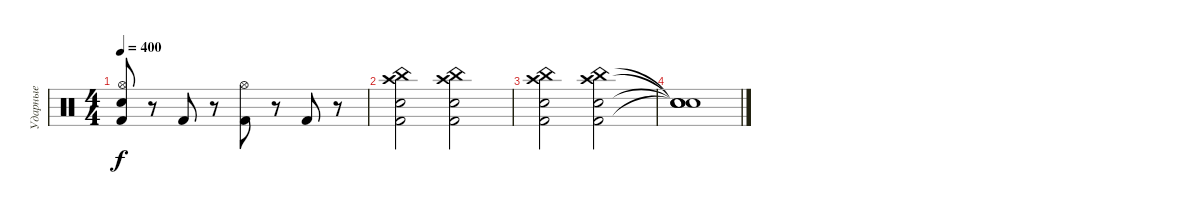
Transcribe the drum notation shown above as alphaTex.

\track ("Ударные" "Ударные") {instrument percussion}
\staff {score}
\articulation defaults
\ts (4 4)
\tempo 400
\clef neutral
\ks c
("Electric Snare (hit)" "Hi-Hat (open)" "Kick (hit) 2").8{dy f} r.8 "Kick (hit) 2".8 r.8 ("Hi-Hat (open)" "Kick (hit) 2").8 r.8 "Kick (hit) 2".8 r.8 |
("Kick (hit) 2" "Electric Snare (hit)" "Crash high (hit)" "China (hit)").2 ("China (hit)" "Crash high (hit)" "Kick (hit) 2" "Electric Snare (hit)").2 |
("Electric Snare (hit)" "Kick (hit) 2" "Crash high (hit)" "China (hit)").2 ("China (hit)" "Crash high (hit)" "Kick (hit) 2" "Electric Snare (hit)").2 |
("Snare (hit)"{t} "Snare (hit)"{t} "Snare (hit)"{t} "Snare (hit)"{t}).1
